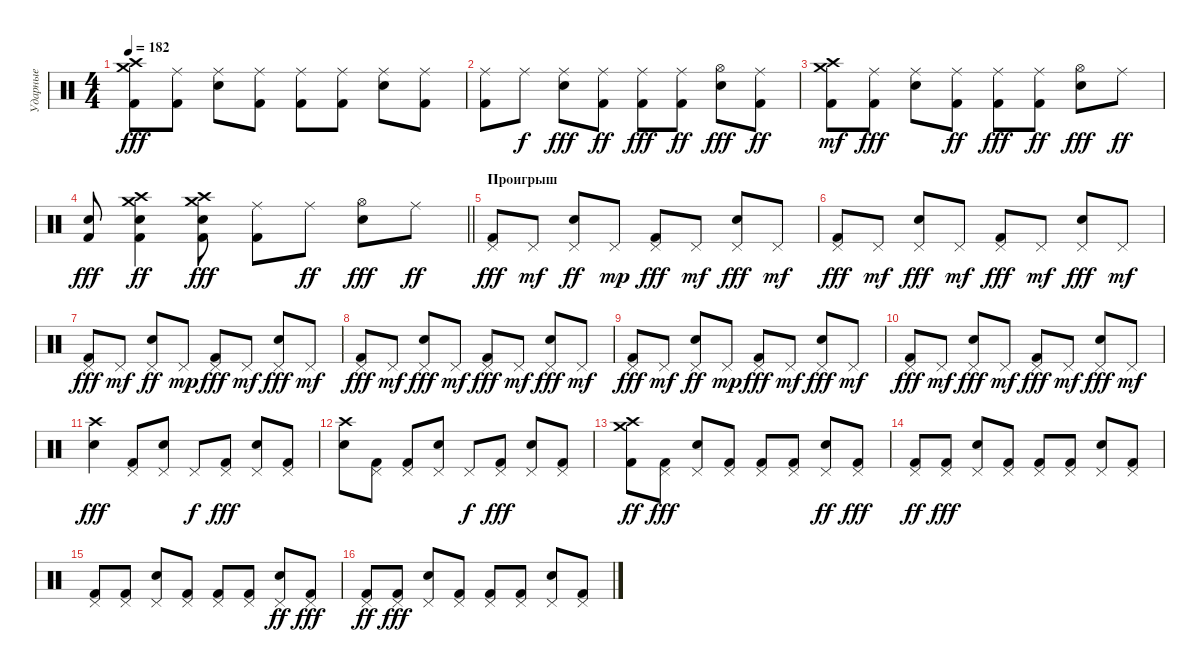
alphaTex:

\track ("Ударные" "Ударные") {instrument percussion}
\staff {score}
\articulation defaults
\ts (4 4)
\tempo 182
\clef neutral
\ks c
("Crash medium (hit)" "Crash high (hit)" "Kick (hit) 2").8{dy fff} ("Kick (hit) 2" "Ride (middle)").8 ("Ride (middle)" "Electric Snare (hit)").8 ("Ride (middle)" "Kick (hit) 2").8 ("Ride (middle)" "Kick (hit) 2").8 ("Kick (hit) 2" "Ride (middle)").8 ("Ride (middle)" "Electric Snare (hit)").8 ("Kick (hit) 2" "Ride (middle)").8 |
("Ride (middle)" "Kick (hit) 2").8 "Ride (middle)".8{dy f} ("Ride (middle)" "Electric Snare (hit)").8{dy fff} ("Kick (hit) 2" "Ride (middle)").8{dy ff} ("Ride (middle)" "Kick (hit) 2").8{dy fff} ("Kick (hit) 2" "Ride (middle)").8{dy ff} ("Hi-Hat (open)" "Electric Snare (hit)").8{dy fff} ("Kick (hit) 2" "Ride (middle)").8{dy ff} |
("Crash high (hit)" "Kick (hit) 2" "Crash medium (hit)").8{dy mf} ("Kick (hit) 2" "Ride (middle)").8{dy fff} ("Ride (middle)" "Electric Snare (hit)").8 ("Kick (hit) 2" "Ride (middle)").8{dy ff} ("Ride (middle)" "Kick (hit) 2").8{dy fff} ("Kick (hit) 2" "Ride (middle)").8{dy ff} ("Hi-Hat (open)" "Electric Snare (hit)").8{dy fff} "Ride (middle)".8{dy ff} |
\barLineRight lightlight
("Kick (hit) 2" "Electric Snare (hit)").8{dy fff} ("Electric Snare (hit)" "Kick (hit) 2" "Crash medium (hit)" "Crash high (hit)").4{dy ff} ("Crash high (hit)" "Crash medium (hit)" "Electric Snare (hit)" "Kick (hit) 2").8{dy fff} ("Ride (middle)" "Kick (hit) 2").8 "Ride (middle)".8{dy ff} ("Hi-Hat (open)" "Electric Snare (hit)").8{dy fff} "Ride (middle)".8{dy ff} |
\section ("" "Проигрыш")
("Pedal Hi-Hat (hit)" "Kick (hit) 2").8{dy fff} "Pedal Hi-Hat (hit)".8{dy mf} ("Electric Snare (hit)" "Pedal Hi-Hat (hit)").8{dy ff} "Pedal Hi-Hat (hit)".8{dy mp} ("Pedal Hi-Hat (hit)" "Kick (hit) 2").8{dy fff} "Pedal Hi-Hat (hit)".8{dy mf} ("Pedal Hi-Hat (hit)" "Electric Snare (hit)").8{dy fff} "Pedal Hi-Hat (hit)".8{dy mf} |
("Pedal Hi-Hat (hit)" "Kick (hit) 2").8{dy fff} "Pedal Hi-Hat (hit)".8{dy mf} ("Pedal Hi-Hat (hit)" "Electric Snare (hit)").8{dy fff} "Pedal Hi-Hat (hit)".8{dy mf} ("Pedal Hi-Hat (hit)" "Kick (hit) 2").8{dy fff} "Pedal Hi-Hat (hit)".8{dy mf} ("Pedal Hi-Hat (hit)" "Electric Snare (hit)").8{dy fff} "Pedal Hi-Hat (hit)".8{dy mf} |
("Pedal Hi-Hat (hit)" "Kick (hit) 2").8{dy fff} "Pedal Hi-Hat (hit)".8{dy mf} ("Electric Snare (hit)" "Pedal Hi-Hat (hit)").8{dy ff} "Pedal Hi-Hat (hit)".8{dy mp} ("Pedal Hi-Hat (hit)" "Kick (hit) 2").8{dy fff} "Pedal Hi-Hat (hit)".8{dy mf} ("Pedal Hi-Hat (hit)" "Electric Snare (hit)").8{dy fff} "Pedal Hi-Hat (hit)".8{dy mf} |
("Pedal Hi-Hat (hit)" "Kick (hit) 2").8{dy fff} "Pedal Hi-Hat (hit)".8{dy mf} ("Pedal Hi-Hat (hit)" "Electric Snare (hit)").8{dy fff} "Pedal Hi-Hat (hit)".8{dy mf} ("Pedal Hi-Hat (hit)" "Kick (hit) 2").8{dy fff} "Pedal Hi-Hat (hit)".8{dy mf} ("Pedal Hi-Hat (hit)" "Electric Snare (hit)").8{dy fff} "Pedal Hi-Hat (hit)".8{dy mf} |
("Pedal Hi-Hat (hit)" "Kick (hit) 2").8{dy fff} "Pedal Hi-Hat (hit)".8{dy mf} ("Electric Snare (hit)" "Pedal Hi-Hat (hit)").8{dy ff} "Pedal Hi-Hat (hit)".8{dy mp} ("Pedal Hi-Hat (hit)" "Kick (hit) 2").8{dy fff} "Pedal Hi-Hat (hit)".8{dy mf} ("Pedal Hi-Hat (hit)" "Electric Snare (hit)").8{dy fff} "Pedal Hi-Hat (hit)".8{dy mf} |
("Pedal Hi-Hat (hit)" "Kick (hit) 2").8{dy fff} "Pedal Hi-Hat (hit)".8{dy mf} ("Pedal Hi-Hat (hit)" "Electric Snare (hit)").8{dy fff} "Pedal Hi-Hat (hit)".8{dy mf} ("Pedal Hi-Hat (hit)" "Kick (hit) 2").8{dy fff} "Pedal Hi-Hat (hit)".8{dy mf} ("Pedal Hi-Hat (hit)" "Electric Snare (hit)").8{dy fff} "Pedal Hi-Hat (hit)".8{dy mf} |
("Crash high (hit)" "Electric Snare (hit)").4{dy fff} ("Pedal Hi-Hat (hit)" "Kick (hit) 2").8 ("Pedal Hi-Hat (hit)" "Electric Snare (hit)").8 "Pedal Hi-Hat (hit)".8{dy f} ("Pedal Hi-Hat (hit)" "Kick (hit) 2").8{dy fff} ("Pedal Hi-Hat (hit)" "Electric Snare (hit)").8 ("Pedal Hi-Hat (hit)" "Kick (hit) 2").8 |
("Electric Snare (hit)" "Crash high (hit)").8 ("Pedal Hi-Hat (hit)" "Kick (hit) 2").8 ("Pedal Hi-Hat (hit)" "Kick (hit) 2").8 ("Pedal Hi-Hat (hit)" "Electric Snare (hit)").8 "Pedal Hi-Hat (hit)".8{dy f} ("Pedal Hi-Hat (hit)" "Kick (hit) 2").8{dy fff} ("Pedal Hi-Hat (hit)" "Electric Snare (hit)").8 ("Pedal Hi-Hat (hit)" "Kick (hit) 2").8 |
("Crash medium (hit)" "Kick (hit) 2" "Crash high (hit)").8{dy ff} ("Pedal Hi-Hat (hit)" "Kick (hit) 2").8{dy fff} ("Pedal Hi-Hat (hit)" "Electric Snare (hit)").8 ("Pedal Hi-Hat (hit)" "Kick (hit) 2").8 ("Pedal Hi-Hat (hit)" "Kick (hit) 2").8 ("Pedal Hi-Hat (hit)" "Kick (hit) 2").8 ("Electric Snare (hit)" "Pedal Hi-Hat (hit)").8{dy ff} ("Pedal Hi-Hat (hit)" "Kick (hit) 2").8{dy fff} |
("Kick (hit) 2" "Pedal Hi-Hat (hit)").8{dy ff} ("Pedal Hi-Hat (hit)" "Kick (hit) 2").8{dy fff} ("Pedal Hi-Hat (hit)" "Electric Snare (hit)").8 ("Pedal Hi-Hat (hit)" "Kick (hit) 2").8 ("Pedal Hi-Hat (hit)" "Kick (hit) 2").8 ("Pedal Hi-Hat (hit)" "Kick (hit) 2").8 ("Pedal Hi-Hat (hit)" "Electric Snare (hit)").8 ("Pedal Hi-Hat (hit)" "Kick (hit) 2").8 |
("Pedal Hi-Hat (hit)" "Kick (hit) 2").8 ("Pedal Hi-Hat (hit)" "Kick (hit) 2").8 ("Pedal Hi-Hat (hit)" "Electric Snare (hit)").8 ("Pedal Hi-Hat (hit)" "Kick (hit) 2").8 ("Pedal Hi-Hat (hit)" "Kick (hit) 2").8 ("Pedal Hi-Hat (hit)" "Kick (hit) 2").8 ("Electric Snare (hit)" "Pedal Hi-Hat (hit)").8{dy ff} ("Pedal Hi-Hat (hit)" "Kick (hit) 2").8{dy fff} |
("Kick (hit) 2" "Pedal Hi-Hat (hit)").8{dy ff} ("Pedal Hi-Hat (hit)" "Kick (hit) 2").8{dy fff} ("Pedal Hi-Hat (hit)" "Electric Snare (hit)").8 ("Pedal Hi-Hat (hit)" "Kick (hit) 2").8 ("Pedal Hi-Hat (hit)" "Kick (hit) 2").8 ("Pedal Hi-Hat (hit)" "Kick (hit) 2").8 ("Pedal Hi-Hat (hit)" "Electric Snare (hit)").8 ("Pedal Hi-Hat (hit)" "Kick (hit) 2").8
